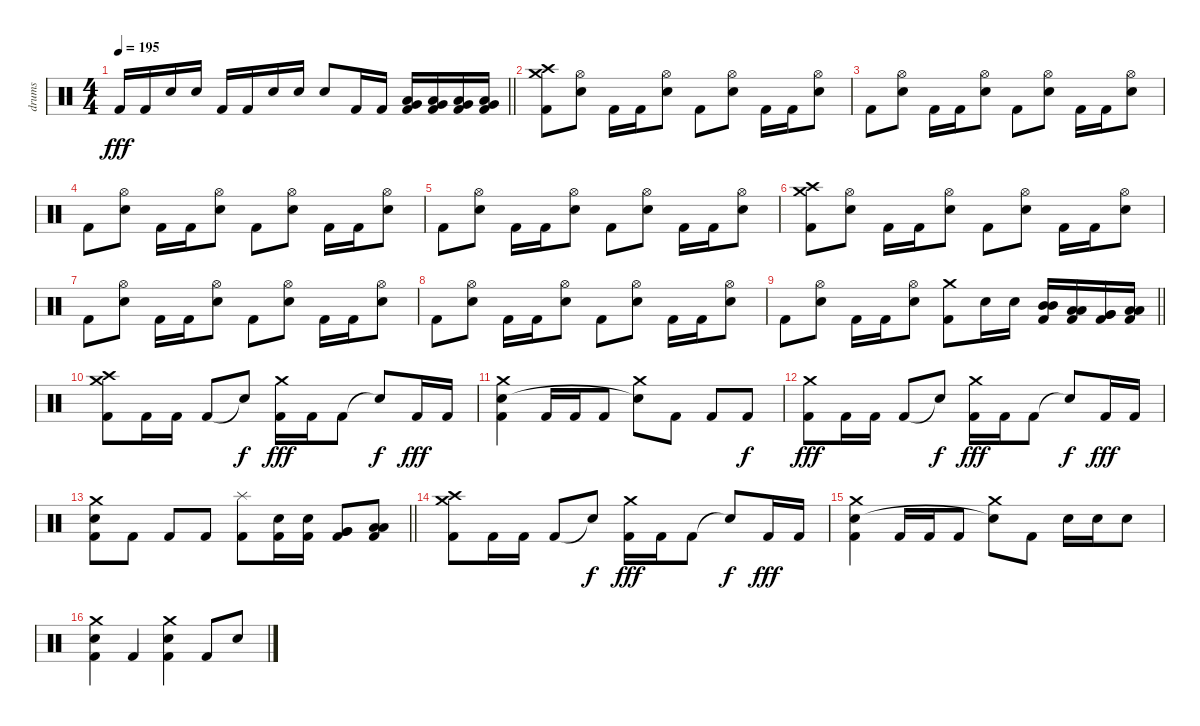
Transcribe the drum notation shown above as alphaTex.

\track ("drums" "drums") {instrument percussion}
\staff {score}
\articulation defaults
\ts (4 4)
\tempo 195
\clef neutral
\barLineRight lightlight
\ks c "Kick (hit) 2".16{dy fff} "Kick (hit) 2".16 "Electric Snare (hit)".16 "Electric Snare (hit)".16 "Kick (hit) 2".16 "Kick (hit) 2".16 "Electric Snare (hit)".16 "Electric Snare (hit)".16 "Electric Snare (hit)".8 "Kick (hit) 2".16 "Kick (hit) 2".16
("Very Low Tom (hit)" "Low Floor Tom (hit)" "Kick (hit) 2").16 ("Low Floor Tom (hit)" "Very Low Tom (hit)" "Kick (hit) 2").16 ("Very Low Tom (hit)" "Low Floor Tom (hit)" "Kick (hit) 2").16 ("Low Floor Tom (hit)" "Very Low Tom (hit)" "Kick (hit) 2").16 |
\section ("" "")
("Crash high (hit)" "Crash medium (hit)" "Kick (hit) 2").8 ("Hi-Hat (open)" "Electric Snare (hit)").8 "Kick (hit) 2".16 "Kick (hit) 2".16 ("Hi-Hat (open)" "Electric Snare (hit)").8 "Kick (hit) 2".8 ("Hi-Hat (open)" "Electric Snare (hit)").8 "Kick (hit) 2".16 "Kick (hit) 2".16 ("Hi-Hat (open)" "Electric Snare (hit)").8 |
"Kick (hit) 2".8 ("Hi-Hat (open)" "Electric Snare (hit)").8 "Kick (hit) 2".16 "Kick (hit) 2".16 ("Hi-Hat (open)" "Electric Snare (hit)").8 "Kick (hit) 2".8 ("Hi-Hat (open)" "Electric Snare (hit)").8 "Kick (hit) 2".16 "Kick (hit) 2".16 ("Hi-Hat (open)" "Electric Snare (hit)").8 |
"Kick (hit) 2".8 ("Hi-Hat (open)" "Electric Snare (hit)").8 "Kick (hit) 2".16 "Kick (hit) 2".16 ("Hi-Hat (open)" "Electric Snare (hit)").8 "Kick (hit) 2".8 ("Hi-Hat (open)" "Electric Snare (hit)").8 "Kick (hit) 2".16 "Kick (hit) 2".16 ("Hi-Hat (open)" "Electric Snare (hit)").8 |
"Kick (hit) 2".8 ("Hi-Hat (open)" "Electric Snare (hit)").8 "Kick (hit) 2".16 "Kick (hit) 2".16 ("Hi-Hat (open)" "Electric Snare (hit)").8 "Kick (hit) 2".8 ("Hi-Hat (open)" "Electric Snare (hit)").8 "Kick (hit) 2".16 "Kick (hit) 2".16 ("Hi-Hat (open)" "Electric Snare (hit)").8 |
("Crash high (hit)" "Crash medium (hit)" "Kick (hit) 2").8 ("Hi-Hat (open)" "Electric Snare (hit)").8 "Kick (hit) 2".16 "Kick (hit) 2".16 ("Hi-Hat (open)" "Electric Snare (hit)").8 "Kick (hit) 2".8 ("Hi-Hat (open)" "Electric Snare (hit)").8 "Kick (hit) 2".16 "Kick (hit) 2".16 ("Hi-Hat (open)" "Electric Snare (hit)").8 |
"Kick (hit) 2".8 ("Hi-Hat (open)" "Electric Snare (hit)").8 "Kick (hit) 2".16 "Kick (hit) 2".16 ("Hi-Hat (open)" "Electric Snare (hit)").8 "Kick (hit) 2".8 ("Hi-Hat (open)" "Electric Snare (hit)").8 "Kick (hit) 2".16 "Kick (hit) 2".16 ("Hi-Hat (open)" "Electric Snare (hit)").8 |
"Kick (hit) 2".8 ("Hi-Hat (open)" "Electric Snare (hit)").8 "Kick (hit) 2".16 "Kick (hit) 2".16 ("Hi-Hat (open)" "Electric Snare (hit)").8 "Kick (hit) 2".8 ("Hi-Hat (open)" "Electric Snare (hit)").8 "Kick (hit) 2".16 "Kick (hit) 2".16 ("Hi-Hat (open)" "Electric Snare (hit)").8 |
\barLineRight lightlight "Kick (hit) 2".8
("Hi-Hat (open)" "Electric Snare (hit)").8 "Kick (hit) 2".16 "Kick (hit) 2".16 ("Hi-Hat (open)" "Electric Snare (hit)").8 ("Crash medium (hit)" "Kick (hit) 2").8 "Electric Snare (hit)".16 "Electric Snare (hit)".16 ("Mid Tom (hit)" "Mid Tom (hit)" "Kick (hit) 2").16 ("Low Tom (hit)" "Low Tom (hit)" "Kick (hit) 2").16 ("Very Low Tom (hit)" "Very Low Tom (hit)" "Kick (hit) 2").16 ("Low Floor Tom (hit)" "Low Floor Tom (hit)" "Kick (hit) 2").16 |
\section ("" "")
("Crash high (hit)" "Crash medium (hit)" "Kick (hit) 2").8 "Kick (hit) 2".16 "Kick (hit) 2".16 "Kick (hit) 2".8 "Snare (hit)"{t}.8{dy f} ("Crash medium (hit)" "Kick (hit) 2").16{dy fff} "Kick (hit) 2".16 "Kick (hit) 2".8 "Snare (hit)"{t}.8{dy f} "Kick (hit) 2".16{dy fff} "Kick (hit) 2".16 |
("Crash medium (hit)" "Electric Snare (hit)" "Kick (hit) 2").4 "Kick (hit) 2".16 "Kick (hit) 2".16 "Kick (hit) 2".8 ("Crash medium (hit)" "Snare (hit)"{t}).8 "Kick (hit) 2".8 "Kick (hit) 2".8 "Kick (hit) 2".8{dy f} |
("Crash medium (hit)" "Kick (hit) 2").8{dy fff} "Kick (hit) 2".16 "Kick (hit) 2".16 "Kick (hit) 2".8 "Snare (hit)"{t}.8{dy f} ("Crash medium (hit)" "Kick (hit) 2").16{dy fff} "Kick (hit) 2".16 "Kick (hit) 2".8 "Snare (hit)"{t}.8{dy f} "Kick (hit) 2".16{dy fff} "Kick (hit) 2".16 |
\barLineRight lightlight
("Crash medium (hit)" "Electric Snare (hit)" "Kick (hit) 2").8 "Kick (hit) 2".8 "Kick (hit) 2".8 "Kick (hit) 2".8 ("Splash (hit)" "Kick (hit) 2").8 ("Electric Snare (hit)" "Kick (hit) 2").16 ("Electric Snare (hit)" "Kick (hit) 2").16 ("Very Low Tom (hit)" "Very Low Tom (hit)" "Kick (hit) 2").8 ("Low Floor Tom (hit)" "Low Floor Tom (hit)" "Kick (hit) 2").8 |
("Crash high (hit)" "Crash medium (hit)" "Kick (hit) 2").8 "Kick (hit) 2".16 "Kick (hit) 2".16 "Kick (hit) 2".8 "Snare (hit)"{t}.8{dy f} ("Crash medium (hit)" "Kick (hit) 2").16{dy fff} "Kick (hit) 2".16 "Kick (hit) 2".8 "Snare (hit)"{t}.8{dy f} "Kick (hit) 2".16{dy fff} "Kick (hit) 2".16 |
("Crash medium (hit)" "Electric Snare (hit)" "Kick (hit) 2").4 "Kick (hit) 2".16 "Kick (hit) 2".16 "Kick (hit) 2".8 ("Crash medium (hit)" "Snare (hit)"{t}).8 "Kick (hit) 2".8 "Electric Snare (hit)".16 "Electric Snare (hit)".16 "Electric Snare (hit)".8 |
("Crash medium (hit)" "Electric Snare (hit)" "Kick (hit) 2").4 "Kick (hit) 2".4 ("Crash medium (hit)" "Electric Snare (hit)" "Kick (hit) 2").4 "Kick (hit) 2".8 "Electric Snare (hit)".8
